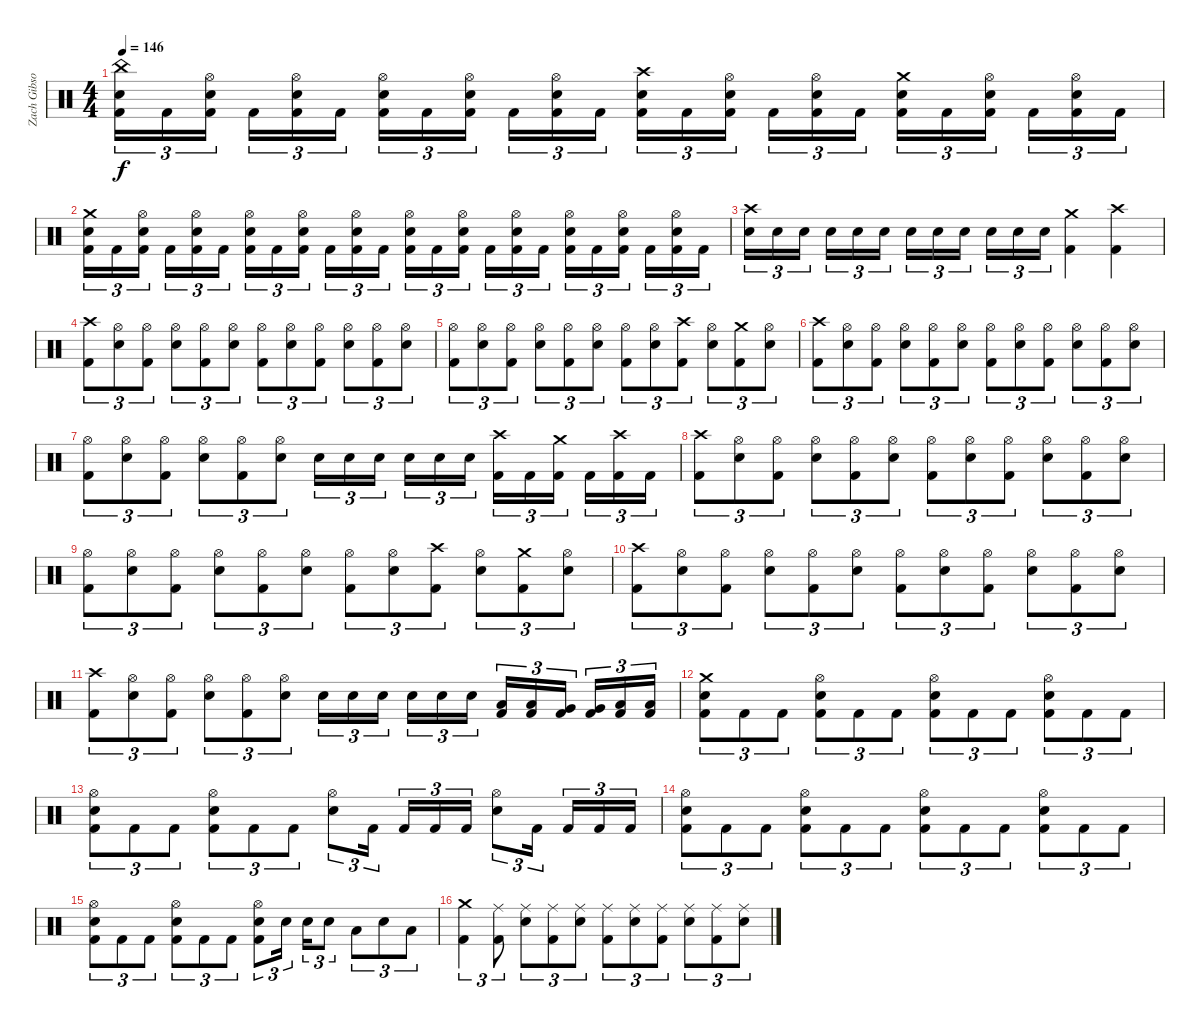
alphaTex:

\track ("Zach Gibson (Drums)" "Zach Gibso") {instrument percussion}
\staff {score}
\articulation defaults
\ts (4 4)
\tempo 146
\clef neutral
\ks c
("China (hit)" "Snare (hit) 2" "Kick (hit) 2").16{tu (3 2) dy f} "Kick (hit) 2".16{tu (3 2)} ("Hi-Hat (open)" "Snare (hit) 2" "Kick (hit) 2").16{tu (3 2)} "Kick (hit) 2".16{tu (3 2)} ("Hi-Hat (open)" "Snare (hit) 2" "Kick (hit) 2").16{tu (3 2)} "Kick (hit) 2".16{tu (3 2)} ("Hi-Hat (open)" "Snare (hit) 2" "Kick (hit) 2").16{tu (3 2)} "Kick (hit) 2".16{tu (3 2)} ("Hi-Hat (open)" "Snare (hit) 2" "Kick (hit) 2").16{tu (3 2)} "Kick (hit) 2".16{tu (3 2)} ("Hi-Hat (open)" "Snare (hit) 2" "Kick (hit) 2").16{tu (3 2)} "Kick (hit) 2".16{tu (3 2)} ("Crash high (hit)" "Snare (hit) 2" "Kick (hit) 2").16{tu (3 2)} "Kick (hit) 2".16{tu (3 2)} ("Hi-Hat (open)" "Snare (hit) 2" "Kick (hit) 2").16{tu (3 2)} "Kick (hit) 2".16{tu (3 2)} ("Hi-Hat (open)" "Snare (hit) 2" "Kick (hit) 2").16{tu (3 2)} "Kick (hit) 2".16{tu (3 2)} ("Crash medium (hit)" "Snare (hit) 2" "Kick (hit) 2").16{tu (3 2)} "Kick (hit) 2".16{tu (3 2)} ("Hi-Hat (open)" "Snare (hit) 2" "Kick (hit) 2").16{tu (3 2)} "Kick (hit) 2".16{tu (3 2)} ("Hi-Hat (open)" "Snare (hit) 2" "Kick (hit) 2").16{tu (3 2)} "Kick (hit) 2".16{tu (3 2)} |
("Crash medium (hit)" "Snare (hit) 2" "Kick (hit) 2").16{tu (3 2)} "Kick (hit) 2".16{tu (3 2)} ("Hi-Hat (open)" "Snare (hit) 2" "Kick (hit) 2").16{tu (3 2)} "Kick (hit) 2".16{tu (3 2)} ("Hi-Hat (open)" "Snare (hit) 2" "Kick (hit) 2").16{tu (3 2)} "Kick (hit) 2".16{tu (3 2)} ("Hi-Hat (open)" "Snare (hit) 2" "Kick (hit) 2").16{tu (3 2)} "Kick (hit) 2".16{tu (3 2)} ("Hi-Hat (open)" "Snare (hit) 2" "Kick (hit) 2").16{tu (3 2)} "Kick (hit) 2".16{tu (3 2)} ("Hi-Hat (open)" "Snare (hit) 2" "Kick (hit) 2").16{tu (3 2)} "Kick (hit) 2".16{tu (3 2)} ("Hi-Hat (open)" "Snare (hit) 2" "Kick (hit) 2").16{tu (3 2)} "Kick (hit) 2".16{tu (3 2)} ("Hi-Hat (open)" "Snare (hit) 2" "Kick (hit) 2").16{tu (3 2)} "Kick (hit) 2".16{tu (3 2)} ("Hi-Hat (open)" "Snare (hit) 2" "Kick (hit) 2").16{tu (3 2)} "Kick (hit) 2".16{tu (3 2)} ("Hi-Hat (open)" "Snare (hit) 2" "Kick (hit) 2").16{tu (3 2)} "Kick (hit) 2".16{tu (3 2)} ("Hi-Hat (open)" "Snare (hit) 2" "Kick (hit) 2").16{tu (3 2)} "Kick (hit) 2".16{tu (3 2)} ("Hi-Hat (open)" "Snare (hit) 2" "Kick (hit) 2").16{tu (3 2)} "Kick (hit) 2".16{tu (3 2)} |
("Crash high (hit)" "Snare (hit) 2").16{tu (3 2)} "Snare (hit) 2".16{tu (3 2)} "Snare (hit) 2".16{tu (3 2)} "Snare (hit) 2".16{tu (3 2)} "Snare (hit) 2".16{tu (3 2)} "Snare (hit) 2".16{tu (3 2)} "Snare (hit) 2".16{tu (3 2)} "Snare (hit) 2".16{tu (3 2)} "Snare (hit) 2".16{tu (3 2)} "Snare (hit) 2".16{tu (3 2)} "Snare (hit) 2".16{tu (3 2)} "Snare (hit) 2".16{tu (3 2)} ("Crash medium (hit)" "Kick (hit) 2").4 ("Crash high (hit)" "Kick (hit) 2").4 |
("Crash high (hit)" "Kick (hit) 2").8{tu (3 2)} ("Hi-Hat (open)" "Snare (hit) 2").8{tu (3 2)} ("Hi-Hat (open)" "Kick (hit) 2").8{tu (3 2)} ("Hi-Hat (open)" "Snare (hit) 2").8{tu (3 2)} ("Hi-Hat (open)" "Kick (hit) 2").8{tu (3 2)} ("Hi-Hat (open)" "Snare (hit) 2").8{tu (3 2)} ("Hi-Hat (open)" "Kick (hit) 2").8{tu (3 2)} ("Hi-Hat (open)" "Snare (hit) 2").8{tu (3 2)} ("Hi-Hat (open)" "Kick (hit) 2").8{tu (3 2)} ("Hi-Hat (open)" "Snare (hit) 2").8{tu (3 2)} ("Hi-Hat (open)" "Kick (hit) 2").8{tu (3 2)} ("Hi-Hat (open)" "Snare (hit) 2").8{tu (3 2)} |
("Hi-Hat (open)" "Kick (hit) 2").8{tu (3 2)} ("Hi-Hat (open)" "Snare (hit) 2").8{tu (3 2)} ("Hi-Hat (open)" "Kick (hit) 2").8{tu (3 2)} ("Hi-Hat (open)" "Snare (hit) 2").8{tu (3 2)} ("Hi-Hat (open)" "Kick (hit) 2").8{tu (3 2)} ("Hi-Hat (open)" "Snare (hit) 2").8{tu (3 2)} ("Hi-Hat (open)" "Kick (hit) 2").8{tu (3 2)} ("Hi-Hat (open)" "Snare (hit) 2").8{tu (3 2)} ("Crash high (hit)" "Kick (hit) 2").8{tu (3 2)} ("Hi-Hat (open)" "Snare (hit) 2").8{tu (3 2)} ("Crash medium (hit)" "Kick (hit) 2").8{tu (3 2)} ("Hi-Hat (open)" "Snare (hit) 2").8{tu (3 2)} |
("Crash high (hit)" "Kick (hit) 2").8{tu (3 2)} ("Hi-Hat (open)" "Snare (hit) 2").8{tu (3 2)} ("Hi-Hat (open)" "Kick (hit) 2").8{tu (3 2)} ("Hi-Hat (open)" "Snare (hit) 2").8{tu (3 2)} ("Hi-Hat (open)" "Kick (hit) 2").8{tu (3 2)} ("Hi-Hat (open)" "Snare (hit) 2").8{tu (3 2)} ("Hi-Hat (open)" "Kick (hit) 2").8{tu (3 2)} ("Hi-Hat (open)" "Snare (hit) 2").8{tu (3 2)} ("Hi-Hat (open)" "Kick (hit) 2").8{tu (3 2)} ("Hi-Hat (open)" "Snare (hit) 2").8{tu (3 2)} ("Hi-Hat (open)" "Kick (hit) 2").8{tu (3 2)} ("Hi-Hat (open)" "Snare (hit) 2").8{tu (3 2)} |
("Hi-Hat (open)" "Kick (hit) 2").8{tu (3 2)} ("Hi-Hat (open)" "Snare (hit) 2").8{tu (3 2)} ("Hi-Hat (open)" "Kick (hit) 2").8{tu (3 2)} ("Hi-Hat (open)" "Snare (hit) 2").8{tu (3 2)} ("Hi-Hat (open)" "Kick (hit) 2").8{tu (3 2)} ("Hi-Hat (open)" "Snare (hit) 2").8{tu (3 2)} "Snare (hit) 2".16{tu (3 2)} "Snare (hit) 2".16{tu (3 2)} "Snare (hit) 2".16{tu (3 2)} "Snare (hit) 2".16{tu (3 2)} "Snare (hit) 2".16{tu (3 2)} "Snare (hit) 2".16{tu (3 2)} ("Crash high (hit)" "Kick (hit) 2").16{tu (3 2)} "Kick (hit) 2".16{tu (3 2)} ("Crash medium (hit)" "Kick (hit) 2").16{tu (3 2)} "Kick (hit) 2".16{tu (3 2)} ("Crash high (hit)" "Kick (hit) 2").16{tu (3 2)} "Kick (hit) 2".16{tu (3 2)} |
("Crash high (hit)" "Kick (hit) 2").8{tu (3 2)} ("Hi-Hat (open)" "Snare (hit) 2").8{tu (3 2)} ("Hi-Hat (open)" "Kick (hit) 2").8{tu (3 2)} ("Hi-Hat (open)" "Snare (hit) 2").8{tu (3 2)} ("Hi-Hat (open)" "Kick (hit) 2").8{tu (3 2)} ("Hi-Hat (open)" "Snare (hit) 2").8{tu (3 2)} ("Hi-Hat (open)" "Kick (hit) 2").8{tu (3 2)} ("Hi-Hat (open)" "Snare (hit) 2").8{tu (3 2)} ("Hi-Hat (open)" "Kick (hit) 2").8{tu (3 2)} ("Hi-Hat (open)" "Snare (hit) 2").8{tu (3 2)} ("Hi-Hat (open)" "Kick (hit) 2").8{tu (3 2)} ("Hi-Hat (open)" "Snare (hit) 2").8{tu (3 2)} |
("Hi-Hat (open)" "Kick (hit) 2").8{tu (3 2)} ("Hi-Hat (open)" "Snare (hit) 2").8{tu (3 2)} ("Hi-Hat (open)" "Kick (hit) 2").8{tu (3 2)} ("Hi-Hat (open)" "Snare (hit) 2").8{tu (3 2)} ("Hi-Hat (open)" "Kick (hit) 2").8{tu (3 2)} ("Hi-Hat (open)" "Snare (hit) 2").8{tu (3 2)} ("Hi-Hat (open)" "Kick (hit) 2").8{tu (3 2)} ("Hi-Hat (open)" "Snare (hit) 2").8{tu (3 2)} ("Crash high (hit)" "Kick (hit) 2").8{tu (3 2)} ("Hi-Hat (open)" "Snare (hit) 2").8{tu (3 2)} ("Crash medium (hit)" "Kick (hit) 2").8{tu (3 2)} ("Hi-Hat (open)" "Snare (hit) 2").8{tu (3 2)} |
("Crash high (hit)" "Kick (hit) 2").8{tu (3 2)} ("Hi-Hat (open)" "Snare (hit) 2").8{tu (3 2)} ("Hi-Hat (open)" "Kick (hit) 2").8{tu (3 2)} ("Hi-Hat (open)" "Snare (hit) 2").8{tu (3 2)} ("Hi-Hat (open)" "Kick (hit) 2").8{tu (3 2)} ("Hi-Hat (open)" "Snare (hit) 2").8{tu (3 2)} ("Hi-Hat (open)" "Kick (hit) 2").8{tu (3 2)} ("Hi-Hat (open)" "Snare (hit) 2").8{tu (3 2)} ("Hi-Hat (open)" "Kick (hit) 2").8{tu (3 2)} ("Hi-Hat (open)" "Snare (hit) 2").8{tu (3 2)} ("Hi-Hat (open)" "Kick (hit) 2").8{tu (3 2)} ("Hi-Hat (open)" "Snare (hit) 2").8{tu (3 2)} |
("Crash high (hit)" "Kick (hit) 2").8{tu (3 2)} ("Hi-Hat (open)" "Snare (hit) 2").8{tu (3 2)} ("Hi-Hat (open)" "Kick (hit) 2").8{tu (3 2)} ("Hi-Hat (open)" "Snare (hit) 2").8{tu (3 2)} ("Hi-Hat (open)" "Kick (hit) 2").8{tu (3 2)} ("Hi-Hat (open)" "Snare (hit) 2").8{tu (3 2)} "Snare (hit) 2".16{tu (3 2)} "Snare (hit) 2".16{tu (3 2)} "Snare (hit) 2".16{tu (3 2)} "Snare (hit) 2".16{tu (3 2)} "Snare (hit) 2".16{tu (3 2)} "Snare (hit) 2".16{tu (3 2)} ("Low Tom (hit)" "Kick (hit) 2").16{tu (3 2)} ("Low Tom (hit)" "Kick (hit) 2").16{tu (3 2)} ("Very Low Tom (hit)" "Kick (hit) 2").16{tu (3 2)} ("Very Low Tom (hit)" "Kick (hit) 2").16{tu (3 2)} ("Low Floor Tom (hit)" "Kick (hit) 2").16{tu (3 2)} ("Low Floor Tom (hit)" "Kick (hit) 2").16{tu (3 2)} |
("Crash medium (hit)" "Snare (hit) 2" "Kick (hit) 2").8{tu (3 2)} "Kick (hit) 2".8{tu (3 2)} "Kick (hit) 2".8{tu (3 2)} ("Hi-Hat (open)" "Snare (hit) 2" "Kick (hit) 2").8{tu (3 2)} "Kick (hit) 2".8{tu (3 2)} "Kick (hit) 2".8{tu (3 2)} ("Hi-Hat (open)" "Snare (hit) 2" "Kick (hit) 2").8{tu (3 2)} "Kick (hit) 2".8{tu (3 2)} "Kick (hit) 2".8{tu (3 2)} ("Hi-Hat (open)" "Snare (hit) 2" "Kick (hit) 2").8{tu (3 2)} "Kick (hit) 2".8{tu (3 2)} "Kick (hit) 2".8{tu (3 2)} |
("Hi-Hat (open)" "Snare (hit) 2" "Kick (hit) 2").8{tu (3 2)} "Kick (hit) 2".8{tu (3 2)} "Kick (hit) 2".8{tu (3 2)} ("Hi-Hat (open)" "Snare (hit) 2" "Kick (hit) 2").8{tu (3 2)} "Kick (hit) 2".8{tu (3 2)} "Kick (hit) 2".8{tu (3 2)} ("Hi-Hat (open)" "Snare (hit) 2").8{tu (3 2)} "Kick (hit) 2".16{tu (3 2)} "Kick (hit) 2".16{tu (3 2)} "Kick (hit) 2".16{tu (3 2)} "Kick (hit) 2".16{tu (3 2)} ("Hi-Hat (open)" "Snare (hit) 2").8{tu (3 2)} "Kick (hit) 2".16{tu (3 2)} "Kick (hit) 2".16{tu (3 2)} "Kick (hit) 2".16{tu (3 2)} "Kick (hit) 2".16{tu (3 2)} |
("Hi-Hat (open)" "Snare (hit) 2" "Kick (hit) 2").8{tu (3 2)} "Kick (hit) 2".8{tu (3 2)} "Kick (hit) 2".8{tu (3 2)} ("Hi-Hat (open)" "Snare (hit) 2" "Kick (hit) 2").8{tu (3 2)} "Kick (hit) 2".8{tu (3 2)} "Kick (hit) 2".8{tu (3 2)} ("Hi-Hat (open)" "Snare (hit) 2" "Kick (hit) 2").8{tu (3 2)} "Kick (hit) 2".8{tu (3 2)} "Kick (hit) 2".8{tu (3 2)} ("Hi-Hat (open)" "Snare (hit) 2" "Kick (hit) 2").8{tu (3 2)} "Kick (hit) 2".8{tu (3 2)} "Kick (hit) 2".8{tu (3 2)} |
("Hi-Hat (open)" "Snare (hit) 2" "Kick (hit) 2").8{tu (3 2)} "Kick (hit) 2".8{tu (3 2)} "Kick (hit) 2".8{tu (3 2)} ("Hi-Hat (open)" "Snare (hit) 2" "Kick (hit) 2").8{tu (3 2)} "Kick (hit) 2".8{tu (3 2)} "Kick (hit) 2".8{tu (3 2)} ("Hi-Hat (open)" "Snare (hit) 2" "Kick (hit) 2").8{tu (3 2)} "Snare (hit) 2".16{tu (3 2)} "Snare (hit) 2".16{tu (3 2)} "Snare (hit) 2".8{tu (3 2)} "Low Tom (hit)".8{tu (3 2)} "Snare (hit) 2".8{tu (3 2)} "Low Floor Tom (hit)".8{tu (3 2)} |
("Crash medium (hit)" "Kick (hit) 2").4{tu (3 2)} ("Ride (middle)" "Kick (hit) 2").8{tu (3 2)} ("Ride (middle)" "Snare (hit) 2").8{tu (3 2)} ("Ride (middle)" "Kick (hit) 2").8{tu (3 2)} ("Ride (middle)" "Snare (hit) 2").8{tu (3 2)} ("Ride (middle)" "Kick (hit) 2").8{tu (3 2)} ("Ride (middle)" "Snare (hit) 2").8{tu (3 2)} ("Ride (middle)" "Kick (hit) 2").8{tu (3 2)} ("Ride (middle)" "Snare (hit) 2").8{tu (3 2)} ("Ride (middle)" "Kick (hit) 2").8{tu (3 2)} ("Ride (middle)" "Snare (hit) 2").8{tu (3 2)}
